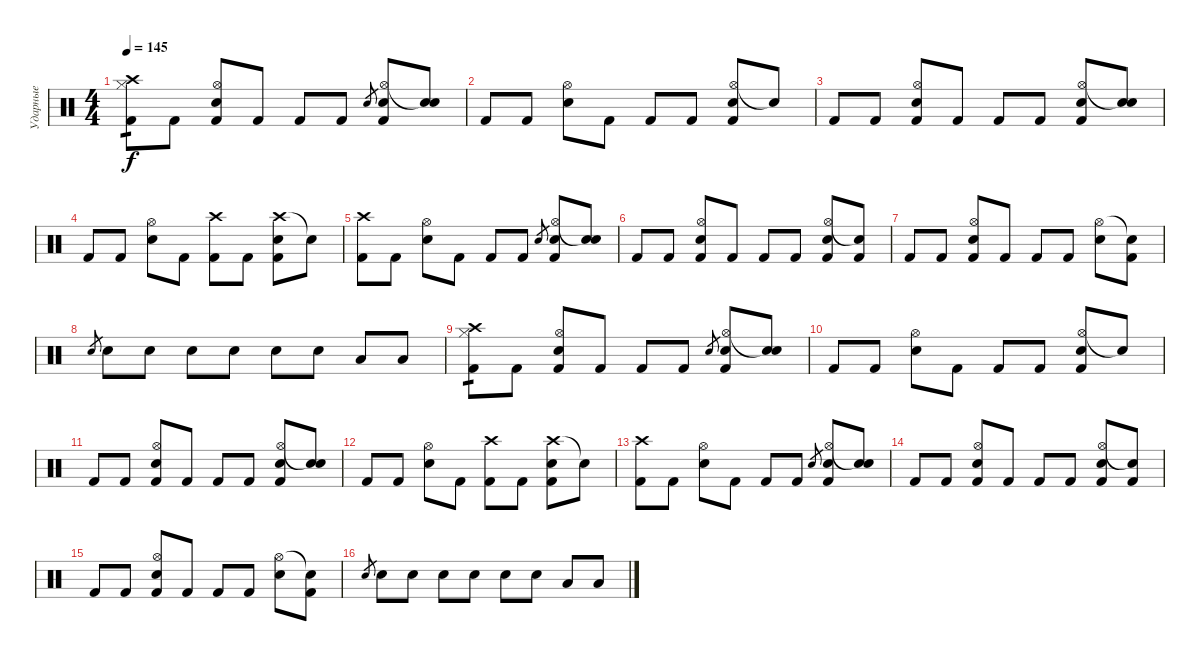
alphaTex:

\track ("Ударные" "Ударные") {instrument percussion}
\staff {score}
\articulation defaults
\ts (4 4)
\tempo 145
\clef neutral
\ks c
("Hi-Hat (closed)" "Crash high (hit)" "Kick (hit) 2").8{tp 1 dy f} "Kick (hit) 2".8 ("Hi-Hat (open)" "Snare (hit) 2" "Kick (hit) 2").8 "Kick (hit) 2".8 "Kick (hit) 2".8 "Kick (hit) 2".8 "Snare (hit) 2".8{gr} ("Hi-Hat (open)" "Snare (hit) 2" "Kick (hit) 2").8 ("Snare (hit)"{t} "Snare (hit) 2").8 |
"Kick (hit) 2".8 "Kick (hit) 2".8 ("Hi-Hat (open)" "Snare (hit) 2").8 "Kick (hit) 2".8 "Kick (hit) 2".8 "Kick (hit) 2".8 ("Hi-Hat (open)" "Snare (hit) 2" "Kick (hit) 2").8 "Snare (hit)"{t}.8 |
"Kick (hit) 2".8 "Kick (hit) 2".8 ("Hi-Hat (open)" "Snare (hit) 2" "Kick (hit) 2").8 "Kick (hit) 2".8 "Kick (hit) 2".8 "Kick (hit) 2".8 ("Hi-Hat (open)" "Snare (hit) 2" "Kick (hit) 2").8 ("Snare (hit)"{t} "Snare (hit) 2").8 |
"Kick (hit) 2".8 "Kick (hit) 2".8 ("Hi-Hat (open)" "Snare (hit) 2").8 "Kick (hit) 2".8 ("Crash high (hit)" "Kick (hit) 2").8 "Kick (hit) 2".8 ("Crash high (hit)" "Snare (hit) 2" "Kick (hit) 2").8 "Snare (hit)"{t}.8 |
("Crash high (hit)" "Kick (hit) 2").8 "Kick (hit) 2".8 ("Hi-Hat (open)" "Snare (hit) 2").8 "Kick (hit) 2".8 "Kick (hit) 2".8 "Kick (hit) 2".8 "Snare (hit) 2".8{gr} ("Hi-Hat (open)" "Snare (hit) 2" "Kick (hit) 2").8 ("Snare (hit)"{t} "Snare (hit) 2").8 |
"Kick (hit) 2".8 "Kick (hit) 2".8 ("Hi-Hat (open)" "Snare (hit) 2" "Kick (hit) 2").8 "Kick (hit) 2".8 "Kick (hit) 2".8 "Kick (hit) 2".8 ("Hi-Hat (open)" "Snare (hit) 2" "Kick (hit) 2").8 ("Snare (hit)"{t} "Kick (hit) 2").8 |
"Kick (hit) 2".8 "Kick (hit) 2".8 ("Hi-Hat (open)" "Snare (hit) 2" "Kick (hit) 2").8 "Kick (hit) 2".8 "Kick (hit) 2".8 "Kick (hit) 2".8 ("Hi-Hat (open)" "Snare (hit) 2").8 ("Snare (hit)"{t} "Kick (hit) 2").8 |
"Snare (hit) 2".8{gr} "Snare (hit) 2".8 "Snare (hit) 2".8 "Snare (hit) 2".8 "Snare (hit) 2".8 "Electric Snare (hit)".8 "Electric Snare (hit)".8 "Low Floor Tom (hit)".8 "Low Floor Tom (hit)".8 |
("Hi-Hat (closed)" "Crash high (hit)" "Kick (hit) 2").8{tp 1} "Kick (hit) 2".8 ("Hi-Hat (open)" "Snare (hit) 2" "Kick (hit) 2").8 "Kick (hit) 2".8 "Kick (hit) 2".8 "Kick (hit) 2".8 "Snare (hit) 2".8{gr} ("Hi-Hat (open)" "Snare (hit) 2" "Kick (hit) 2").8 ("Snare (hit)"{t} "Snare (hit) 2").8 |
"Kick (hit) 2".8 "Kick (hit) 2".8 ("Hi-Hat (open)" "Snare (hit) 2").8 "Kick (hit) 2".8 "Kick (hit) 2".8 "Kick (hit) 2".8 ("Hi-Hat (open)" "Snare (hit) 2" "Kick (hit) 2").8 "Snare (hit)"{t}.8 |
"Kick (hit) 2".8 "Kick (hit) 2".8 ("Hi-Hat (open)" "Snare (hit) 2" "Kick (hit) 2").8 "Kick (hit) 2".8 "Kick (hit) 2".8 "Kick (hit) 2".8 ("Hi-Hat (open)" "Snare (hit) 2" "Kick (hit) 2").8 ("Snare (hit)"{t} "Snare (hit) 2").8 |
"Kick (hit) 2".8 "Kick (hit) 2".8 ("Hi-Hat (open)" "Snare (hit) 2").8 "Kick (hit) 2".8 ("Crash high (hit)" "Kick (hit) 2").8 "Kick (hit) 2".8 ("Crash high (hit)" "Snare (hit) 2" "Kick (hit) 2").8 "Snare (hit)"{t}.8 |
("Crash high (hit)" "Kick (hit) 2").8 "Kick (hit) 2".8 ("Hi-Hat (open)" "Snare (hit) 2").8 "Kick (hit) 2".8 "Kick (hit) 2".8 "Kick (hit) 2".8 "Snare (hit) 2".8{gr} ("Hi-Hat (open)" "Snare (hit) 2" "Kick (hit) 2").8 ("Snare (hit)"{t} "Snare (hit) 2").8 |
"Kick (hit) 2".8 "Kick (hit) 2".8 ("Hi-Hat (open)" "Snare (hit) 2" "Kick (hit) 2").8 "Kick (hit) 2".8 "Kick (hit) 2".8 "Kick (hit) 2".8 ("Hi-Hat (open)" "Snare (hit) 2" "Kick (hit) 2").8 ("Snare (hit)"{t} "Kick (hit) 2").8 |
"Kick (hit) 2".8 "Kick (hit) 2".8 ("Hi-Hat (open)" "Snare (hit) 2" "Kick (hit) 2").8 "Kick (hit) 2".8 "Kick (hit) 2".8 "Kick (hit) 2".8 ("Hi-Hat (open)" "Snare (hit) 2").8 ("Snare (hit)"{t} "Kick (hit) 2").8 |
"Snare (hit) 2".8{gr} "Snare (hit) 2".8 "Snare (hit) 2".8 "Snare (hit) 2".8 "Snare (hit) 2".8 "Electric Snare (hit)".8 "Electric Snare (hit)".8 "Low Floor Tom (hit)".8 "Low Floor Tom (hit)".8
